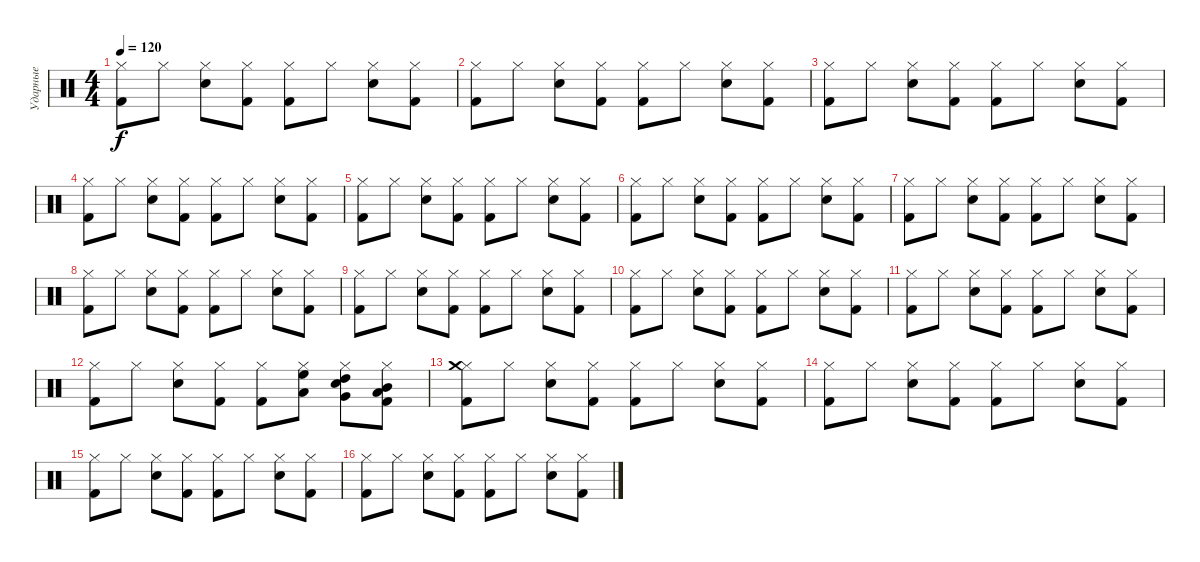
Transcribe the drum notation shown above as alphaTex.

\track ("Ударные" "Ударные") {instrument percussion}
\staff {score}
\articulation defaults
\ts (4 4)
\tempo 120
\clef neutral
\ks c
("Kick (hit) 2" "Hi-Hat (closed)").8{dy f} "Hi-Hat (closed)".8 ("Electric Snare (hit)" "Hi-Hat (closed)").8 ("Kick (hit) 2" "Hi-Hat (closed)").8 ("Kick (hit) 2" "Hi-Hat (closed)").8 "Hi-Hat (closed)".8 ("Electric Snare (hit)" "Hi-Hat (closed)").8 ("Kick (hit) 2" "Hi-Hat (closed)").8 |
("Kick (hit) 2" "Hi-Hat (closed)").8 "Hi-Hat (closed)".8 ("Electric Snare (hit)" "Hi-Hat (closed)").8 ("Kick (hit) 2" "Hi-Hat (closed)").8 ("Kick (hit) 2" "Hi-Hat (closed)").8 "Hi-Hat (closed)".8 ("Electric Snare (hit)" "Hi-Hat (closed)").8 ("Kick (hit) 2" "Hi-Hat (closed)").8 |
("Kick (hit) 2" "Hi-Hat (closed)").8 "Hi-Hat (closed)".8 ("Electric Snare (hit)" "Hi-Hat (closed)").8 ("Kick (hit) 2" "Hi-Hat (closed)").8 ("Kick (hit) 2" "Hi-Hat (closed)").8 "Hi-Hat (closed)".8 ("Electric Snare (hit)" "Hi-Hat (closed)").8 ("Kick (hit) 2" "Hi-Hat (closed)").8 |
("Kick (hit) 2" "Hi-Hat (closed)").8 "Hi-Hat (closed)".8 ("Electric Snare (hit)" "Hi-Hat (closed)").8 ("Kick (hit) 2" "Hi-Hat (closed)").8 ("Kick (hit) 2" "Hi-Hat (closed)").8 "Hi-Hat (closed)".8 ("Electric Snare (hit)" "Hi-Hat (closed)").8 ("Kick (hit) 2" "Hi-Hat (closed)").8 |
("Kick (hit) 2" "Hi-Hat (closed)").8 "Hi-Hat (closed)".8 ("Electric Snare (hit)" "Hi-Hat (closed)").8 ("Kick (hit) 2" "Hi-Hat (closed)").8 ("Kick (hit) 2" "Hi-Hat (closed)").8 "Hi-Hat (closed)".8 ("Electric Snare (hit)" "Hi-Hat (closed)").8 ("Kick (hit) 2" "Hi-Hat (closed)").8 |
("Kick (hit) 2" "Hi-Hat (closed)").8 "Hi-Hat (closed)".8 ("Electric Snare (hit)" "Hi-Hat (closed)").8 ("Kick (hit) 2" "Hi-Hat (closed)").8 ("Kick (hit) 2" "Hi-Hat (closed)").8 "Hi-Hat (closed)".8 ("Electric Snare (hit)" "Hi-Hat (closed)").8 ("Kick (hit) 2" "Hi-Hat (closed)").8 |
("Kick (hit) 2" "Hi-Hat (closed)").8 "Hi-Hat (closed)".8 ("Electric Snare (hit)" "Hi-Hat (closed)").8 ("Kick (hit) 2" "Hi-Hat (closed)").8 ("Kick (hit) 2" "Hi-Hat (closed)").8 "Hi-Hat (closed)".8 ("Electric Snare (hit)" "Hi-Hat (closed)").8 ("Kick (hit) 2" "Hi-Hat (closed)").8 |
("Kick (hit) 2" "Hi-Hat (closed)").8 "Hi-Hat (closed)".8 ("Electric Snare (hit)" "Hi-Hat (closed)").8 ("Kick (hit) 2" "Hi-Hat (closed)").8 ("Kick (hit) 2" "Hi-Hat (closed)").8 "Hi-Hat (closed)".8 ("Electric Snare (hit)" "Hi-Hat (closed)").8 ("Kick (hit) 2" "Hi-Hat (closed)").8 |
("Kick (hit) 2" "Hi-Hat (closed)").8 "Hi-Hat (closed)".8 ("Electric Snare (hit)" "Hi-Hat (closed)").8 ("Kick (hit) 2" "Hi-Hat (closed)").8 ("Kick (hit) 2" "Hi-Hat (closed)").8 "Hi-Hat (closed)".8 ("Electric Snare (hit)" "Hi-Hat (closed)").8 ("Kick (hit) 2" "Hi-Hat (closed)").8 |
("Kick (hit) 2" "Hi-Hat (closed)").8 "Hi-Hat (closed)".8 ("Electric Snare (hit)" "Hi-Hat (closed)").8 ("Kick (hit) 2" "Hi-Hat (closed)").8 ("Kick (hit) 2" "Hi-Hat (closed)").8 "Hi-Hat (closed)".8 ("Electric Snare (hit)" "Hi-Hat (closed)").8 ("Kick (hit) 2" "Hi-Hat (closed)").8 |
("Kick (hit) 2" "Hi-Hat (closed)").8 "Hi-Hat (closed)".8 ("Electric Snare (hit)" "Hi-Hat (closed)").8 ("Kick (hit) 2" "Hi-Hat (closed)").8 ("Kick (hit) 2" "Hi-Hat (closed)").8 "Hi-Hat (closed)".8 ("Electric Snare (hit)" "Hi-Hat (closed)").8 ("Kick (hit) 2" "Hi-Hat (closed)").8 |
("Kick (hit) 2" "Hi-Hat (closed)").8 "Hi-Hat (closed)".8 ("Electric Snare (hit)" "Hi-Hat (closed)").8 ("Kick (hit) 2" "Hi-Hat (closed)").8 ("Kick (hit) 2" "Hi-Hat (closed)").8 ("Hi-Hat (closed)" "Low Tom (hit)" "High Floor Tom (hit)").8 ("Electric Snare (hit)" "Hi-Hat (closed)" "Very Low Tom (hit)" "High Tom (hit)").8 ("Kick (hit) 2" "Hi-Hat (closed)" "Low Floor Tom (hit)" "Mid Tom (hit)").8 |
("Kick (hit) 2" "Hi-Hat (closed)" "Crash medium (hit)").8 "Hi-Hat (closed)".8 ("Electric Snare (hit)" "Hi-Hat (closed)").8 ("Kick (hit) 2" "Hi-Hat (closed)").8 ("Kick (hit) 2" "Hi-Hat (closed)").8 "Hi-Hat (closed)".8 ("Electric Snare (hit)" "Hi-Hat (closed)").8 ("Kick (hit) 2" "Hi-Hat (closed)").8 |
("Kick (hit) 2" "Hi-Hat (closed)").8 "Hi-Hat (closed)".8 ("Electric Snare (hit)" "Hi-Hat (closed)").8 ("Kick (hit) 2" "Hi-Hat (closed)").8 ("Kick (hit) 2" "Hi-Hat (closed)").8 "Hi-Hat (closed)".8 ("Electric Snare (hit)" "Hi-Hat (closed)").8 ("Kick (hit) 2" "Hi-Hat (closed)").8 |
("Kick (hit) 2" "Hi-Hat (closed)").8 "Hi-Hat (closed)".8 ("Electric Snare (hit)" "Hi-Hat (closed)").8 ("Kick (hit) 2" "Hi-Hat (closed)").8 ("Kick (hit) 2" "Hi-Hat (closed)").8 "Hi-Hat (closed)".8 ("Electric Snare (hit)" "Hi-Hat (closed)").8 ("Kick (hit) 2" "Hi-Hat (closed)").8 |
("Kick (hit) 2" "Hi-Hat (closed)").8 "Hi-Hat (closed)".8 ("Electric Snare (hit)" "Hi-Hat (closed)").8 ("Kick (hit) 2" "Hi-Hat (closed)").8 ("Kick (hit) 2" "Hi-Hat (closed)").8 "Hi-Hat (closed)".8 ("Electric Snare (hit)" "Hi-Hat (closed)").8 ("Kick (hit) 2" "Hi-Hat (closed)").8
